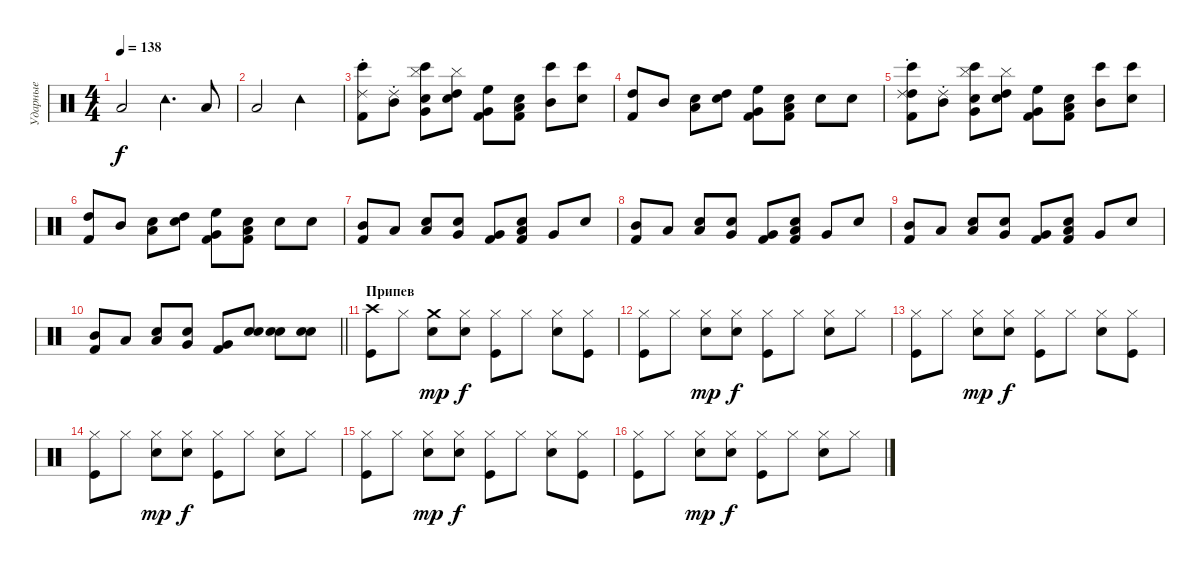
\track ("Ударные" "Ударные") {instrument percussion}
\staff {score}
\articulation defaults
\ts (4 4)
\tempo 138
\clef neutral
\ks c "Low Floor Tom (hit)".2{dy f} "Tambourine (hit)".4{d} "Low Floor Tom (hit)".8
|
"Low Floor Tom (hit)".2 "Tambourine (hit)".2 |
("Bongo High (hit)" "Kick (hit) 2" "Ride (choke) 2").8 ("Mid Tom (hit)" "Ride (choke) 2").8 ("Snare (hit) 2" "Very Low Tom (hit)" "Cymbal (hit)" "Bongo High (hit)").8 ("Snare (hit) 2" "High Tom (hit)" "Cymbal (hit)").8 ("Very Low Tom (hit)" "High Floor Tom (hit)" "Kick (hit) 2").8 ("Snare (hit) 2" "Low Floor Tom (hit)" "Kick (hit) 2").8 ("Mid Tom (hit)" "Bongo High (hit)").8 ("Snare (hit) 2" "Bongo High (hit)").8 |
("High Tom (hit)" "Kick (hit) 2").8 "Mid Tom (hit)".8 ("Snare (hit) 2" "Low Tom (hit)").8 ("Snare (hit) 2" "High Tom (hit)").8 ("Very Low Tom (hit)" "High Floor Tom (hit)" "Kick (hit) 2").8 ("Snare (hit) 2" "Low Floor Tom (hit)" "Kick (hit) 2").8 "Snare (hit) 2".8 "Snare (hit) 2".8 |
("High Tom (hit)" "Kick (hit) 2" "Ride (choke) 2" "Bongo High (hit)").8 ("Mid Tom (hit)" "Ride (choke) 2").8 ("Snare (hit) 2" "Very Low Tom (hit)" "Cymbal (hit)" "Bongo High (hit)").8 ("Snare (hit) 2" "High Tom (hit)" "Cymbal (hit)").8 ("Very Low Tom (hit)" "High Floor Tom (hit)" "Kick (hit) 2").8 ("Snare (hit) 2" "Low Floor Tom (hit)" "Kick (hit) 2").8 ("Mid Tom (hit)" "Bongo High (hit)").8 ("Snare (hit) 2" "Bongo High (hit)").8 |
("High Tom (hit)" "Kick (hit) 2").8 "Mid Tom (hit)".8 ("Snare (hit) 2" "Low Tom (hit)").8 ("Snare (hit) 2" "High Tom (hit)").8 ("Very Low Tom (hit)" "High Floor Tom (hit)" "Kick (hit) 2").8 ("Snare (hit) 2" "Low Floor Tom (hit)" "Kick (hit) 2").8 "Snare (hit) 2".8 "Snare (hit) 2".8 |
("Mid Tom (hit)" "Kick (hit) 2").8 "Low Tom (hit)".8 ("Snare (hit) 2" "Low Floor Tom (hit)").8 ("Snare (hit) 2" "Very Low Tom (hit)").8 ("Very Low Tom (hit)" "Kick (hit) 2").8 ("Low Floor Tom (hit)" "Snare (hit) 2" "Kick (hit) 2").8 "Very Low Tom (hit)".8 "Snare (hit) 2".8 |
("Mid Tom (hit)" "Kick (hit) 2").8 "Low Tom (hit)".8 ("Snare (hit) 2" "Low Floor Tom (hit)").8 ("Snare (hit) 2" "Very Low Tom (hit)").8 ("Very Low Tom (hit)" "Kick (hit) 2").8 ("Low Floor Tom (hit)" "Snare (hit) 2" "Kick (hit) 2").8 "Very Low Tom (hit)".8 "Snare (hit) 2".8 |
("Mid Tom (hit)" "Kick (hit) 2").8 "Low Tom (hit)".8 ("Snare (hit) 2" "Low Floor Tom (hit)").8 ("Snare (hit) 2" "Very Low Tom (hit)").8 ("Very Low Tom (hit)" "Kick (hit) 2").8 ("Low Floor Tom (hit)" "Snare (hit) 2" "Kick (hit) 2").8 "Very Low Tom (hit)".8 "Snare (hit) 2".8 |
\barLineRight lightlight
("Mid Tom (hit)" "Kick (hit) 2").8 "Low Tom (hit)".8 ("Snare (hit) 2" "Low Floor Tom (hit)").8 ("Snare (hit) 2" "Very Low Tom (hit)").8 ("Very Low Tom (hit)" "Kick (hit) 2").8 ("Snare (hit) 2" "Electric Snare (hit)").8 ("Snare (hit) 2" "Electric Snare (hit)").8 ("Snare (hit) 2" "Electric Snare (hit)").8 |
\section ("" "Припев")
("Crash high (hit)" "Kick (hit)").8 "Hi-Hat (closed)".8 ("Crash medium (hit)" "Snare (hit) 2").8{dy mp} ("Hi-Hat (closed)" "Snare (hit) 2").8{dy f} ("Hi-Hat (closed)" "Kick (hit)").8 "Hi-Hat (closed)".8 ("Hi-Hat (closed)" "Snare (hit) 2").8 ("Hi-Hat (closed)" "Kick (hit)").8 |
("Hi-Hat (closed)" "Kick (hit)").8 "Hi-Hat (closed)".8 ("Hi-Hat (closed)" "Snare (hit) 2").8{dy mp} ("Hi-Hat (closed)" "Snare (hit) 2").8{dy f} ("Hi-Hat (closed)" "Kick (hit)").8 "Hi-Hat (closed)".8 ("Hi-Hat (closed)" "Snare (hit) 2").8 "Hi-Hat (closed)".8 |
("Hi-Hat (closed)" "Kick (hit)").8 "Hi-Hat (closed)".8 ("Hi-Hat (closed)" "Snare (hit) 2").8{dy mp} ("Hi-Hat (closed)" "Snare (hit) 2").8{dy f} ("Hi-Hat (closed)" "Kick (hit)").8 "Hi-Hat (closed)".8 ("Hi-Hat (closed)" "Snare (hit) 2").8 ("Hi-Hat (closed)" "Kick (hit)").8 |
("Hi-Hat (closed)" "Kick (hit)").8 "Hi-Hat (closed)".8 ("Hi-Hat (closed)" "Snare (hit) 2").8{dy mp} ("Hi-Hat (closed)" "Snare (hit) 2").8{dy f} ("Hi-Hat (closed)" "Kick (hit)").8 "Hi-Hat (closed)".8 ("Hi-Hat (closed)" "Snare (hit) 2").8 "Hi-Hat (closed)".8 |
("Hi-Hat (closed)" "Kick (hit)").8 "Hi-Hat (closed)".8 ("Hi-Hat (closed)" "Snare (hit) 2").8{dy mp} ("Hi-Hat (closed)" "Snare (hit) 2").8{dy f} ("Hi-Hat (closed)" "Kick (hit)").8 "Hi-Hat (closed)".8 ("Hi-Hat (closed)" "Snare (hit) 2").8 ("Hi-Hat (closed)" "Kick (hit)").8 |
("Hi-Hat (closed)" "Kick (hit)").8 "Hi-Hat (closed)".8 ("Hi-Hat (closed)" "Snare (hit) 2").8{dy mp} ("Hi-Hat (closed)" "Snare (hit) 2").8{dy f} ("Hi-Hat (closed)" "Kick (hit)").8 "Hi-Hat (closed)".8 ("Hi-Hat (closed)" "Snare (hit) 2").8 "Hi-Hat (closed)".8
